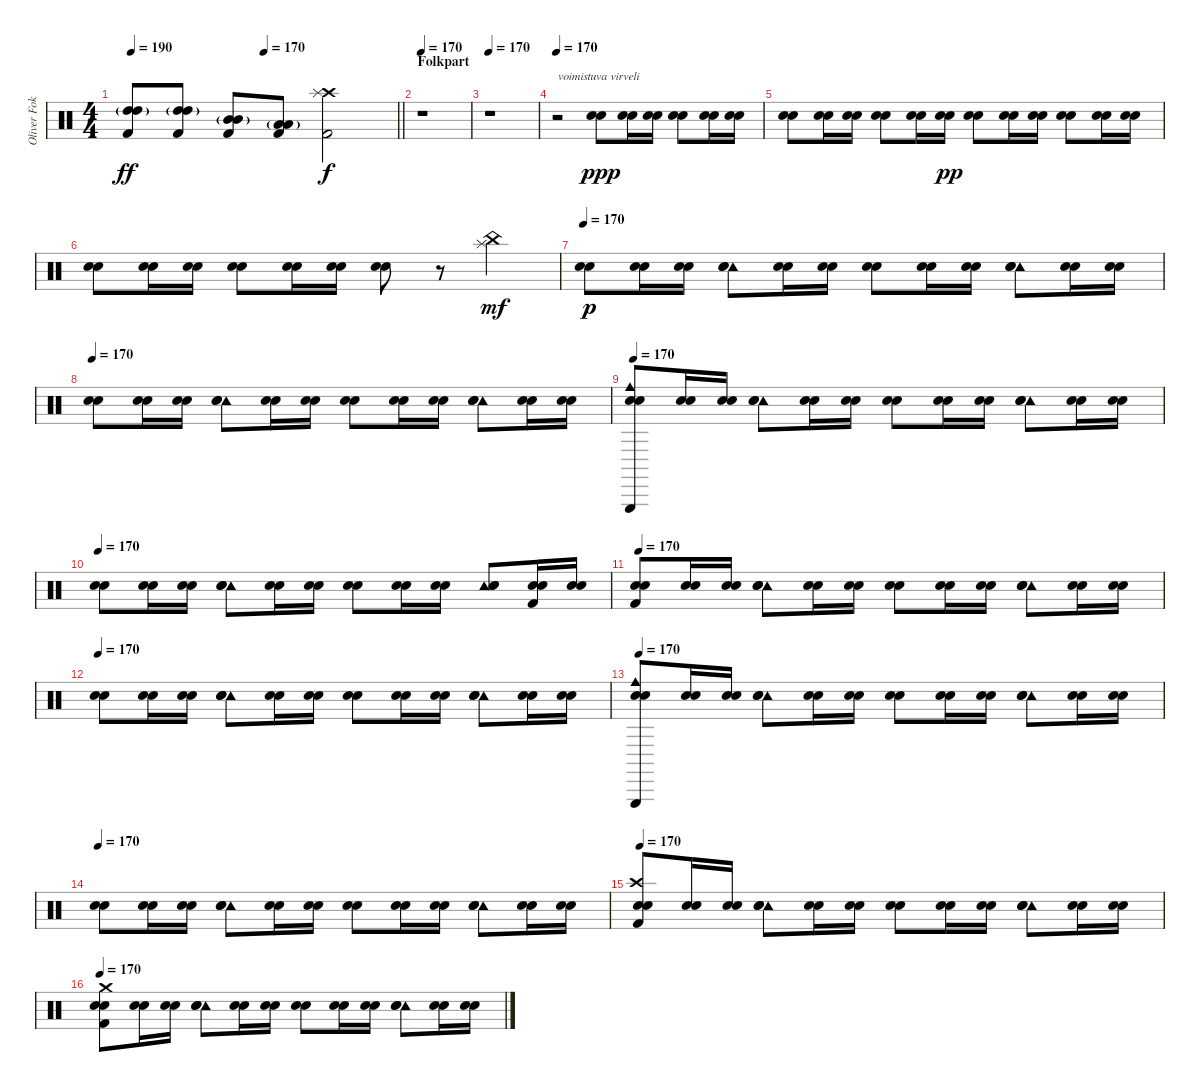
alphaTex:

\track ("Oliver Fokin" "Oliver Fok") {instrument percussion}
\staff {score}
\articulation defaults
\ts (4 4)
\tempo 190
\tempo (170 0.5)
\clef neutral
\barLineRight lightlight
\ks c
("High Tom (hit)"{g} "High Tom (hit)" "Kick (hit) 2").8{dy ff} ("High Tom (hit)"{g} "High Tom (hit)" "Kick (hit) 2").8 ("Mid Tom (hit)"{g} "Mid Tom (hit)" "Kick (hit) 2").8 ("Low Tom (hit)"{g} "Low Tom (hit)" "Kick (hit) 2").8 ("Crash high (hit)" "Splash (hit)" "Kick (hit) 2").2{dy f} |
\section ("" "Folkpart")
\tempo 170
r.1 |
\tempo 170
r.1 |
\tempo 170
r.2{txt "voimistuva virveli"} ("Electric Snare (hit)" "Electric Snare (hit)").8{dy ppp} ("Electric Snare (hit)" "Electric Snare (hit)").16 ("Electric Snare (hit)" "Electric Snare (hit)").16 ("Electric Snare (hit)" "Electric Snare (hit)").8 ("Electric Snare (hit)" "Electric Snare (hit)").16 ("Electric Snare (hit)" "Electric Snare (hit)").16 |
("Electric Snare (hit)" "Electric Snare (hit)").8 ("Electric Snare (hit)" "Electric Snare (hit)").16 ("Electric Snare (hit)" "Electric Snare (hit)").16 ("Electric Snare (hit)" "Electric Snare (hit)").8 ("Electric Snare (hit)" "Electric Snare (hit)").16 ("Electric Snare (hit)" "Electric Snare (hit)").16{dy pp} ("Electric Snare (hit)" "Electric Snare (hit)").8 ("Electric Snare (hit)" "Electric Snare (hit)").16 ("Electric Snare (hit)" "Electric Snare (hit)").16 ("Electric Snare (hit)" "Electric Snare (hit)").8 ("Electric Snare (hit)" "Electric Snare (hit)").16 ("Electric Snare (hit)" "Electric Snare (hit)").16 |
("Electric Snare (hit)" "Electric Snare (hit)").8 ("Electric Snare (hit)" "Electric Snare (hit)").16 ("Electric Snare (hit)" "Electric Snare (hit)").16 ("Electric Snare (hit)" "Electric Snare (hit)").8 ("Electric Snare (hit)" "Electric Snare (hit)").16 ("Electric Snare (hit)" "Electric Snare (hit)").16 ("Electric Snare (hit)" "Electric Snare (hit)").8 r.8 ("China (hit)" "Splash (hit)").4{dy mf} |
\tempo 170
("Electric Snare (hit)" "Electric Snare (hit)").8{dy p} ("Electric Snare (hit)" "Electric Snare (hit)").16 ("Electric Snare (hit)" "Electric Snare (hit)").16 ("Tambourine (hit)" "Electric Snare (hit)" "Electric Snare (hit)").8 ("Electric Snare (hit)" "Electric Snare (hit)").16 ("Electric Snare (hit)" "Electric Snare (hit)").16 ("Electric Snare (hit)" "Electric Snare (hit)").8 ("Electric Snare (hit)" "Electric Snare (hit)").16 ("Electric Snare (hit)" "Electric Snare (hit)").16 ("Tambourine (hit)" "Electric Snare (hit)" "Electric Snare (hit)").8 ("Electric Snare (hit)" "Electric Snare (hit)").16 ("Electric Snare (hit)" "Electric Snare (hit)").16 |
\tempo 170
("Electric Snare (hit)" "Electric Snare (hit)").8 ("Electric Snare (hit)" "Electric Snare (hit)").16 ("Electric Snare (hit)" "Electric Snare (hit)").16 ("Tambourine (hit)" "Electric Snare (hit)" "Electric Snare (hit)").8 ("Electric Snare (hit)" "Electric Snare (hit)").16 ("Electric Snare (hit)" "Electric Snare (hit)").16 ("Electric Snare (hit)" "Electric Snare (hit)").8 ("Electric Snare (hit)" "Electric Snare (hit)").16 ("Electric Snare (hit)" "Electric Snare (hit)").16 ("Tambourine (hit)" "Electric Snare (hit)" "Electric Snare (hit)").8 ("Electric Snare (hit)" "Electric Snare (hit)").16 ("Electric Snare (hit)" "Electric Snare (hit)").16 |
\tempo 170
("Cowbell medium (hit)" "Triangle (hit)" "Electric Snare (hit)" "Electric Snare (hit)").8 ("Electric Snare (hit)" "Electric Snare (hit)").16 ("Electric Snare (hit)" "Electric Snare (hit)").16 ("Tambourine (hit)" "Electric Snare (hit)" "Electric Snare (hit)").8 ("Electric Snare (hit)" "Electric Snare (hit)").16 ("Electric Snare (hit)" "Electric Snare (hit)").16 ("Electric Snare (hit)" "Electric Snare (hit)").8 ("Electric Snare (hit)" "Electric Snare (hit)").16 ("Electric Snare (hit)" "Electric Snare (hit)").16 ("Tambourine (hit)" "Electric Snare (hit)" "Electric Snare (hit)").8 ("Electric Snare (hit)" "Electric Snare (hit)").16 ("Electric Snare (hit)" "Electric Snare (hit)").16 |
\tempo 170
("Electric Snare (hit)" "Electric Snare (hit)").8 ("Electric Snare (hit)" "Electric Snare (hit)").16 ("Electric Snare (hit)" "Electric Snare (hit)").16 ("Tambourine (hit)" "Electric Snare (hit)" "Electric Snare (hit)").8 ("Electric Snare (hit)" "Electric Snare (hit)").16 ("Electric Snare (hit)" "Electric Snare (hit)").16 ("Electric Snare (hit)" "Electric Snare (hit)").8 ("Electric Snare (hit)" "Electric Snare (hit)").16 ("Electric Snare (hit)" "Electric Snare (hit)").16 ("Tambourine (hit)" "Electric Snare (hit)" "Electric Snare (hit)").8 ("Kick (hit) 2" "Electric Snare (hit)" "Electric Snare (hit)").16 ("Electric Snare (hit)" "Electric Snare (hit)").16 |
\tempo 170
("Kick (hit) 2" "Electric Snare (hit)" "Electric Snare (hit)").8 ("Electric Snare (hit)" "Electric Snare (hit)").16 ("Electric Snare (hit)" "Electric Snare (hit)").16 ("Tambourine (hit)" "Electric Snare (hit)" "Electric Snare (hit)").8 ("Electric Snare (hit)" "Electric Snare (hit)").16 ("Electric Snare (hit)" "Electric Snare (hit)").16 ("Electric Snare (hit)" "Electric Snare (hit)").8 ("Electric Snare (hit)" "Electric Snare (hit)").16 ("Electric Snare (hit)" "Electric Snare (hit)").16 ("Tambourine (hit)" "Electric Snare (hit)" "Electric Snare (hit)").8 ("Electric Snare (hit)" "Electric Snare (hit)").16 ("Electric Snare (hit)" "Electric Snare (hit)").16 |
\tempo 170
("Electric Snare (hit)" "Electric Snare (hit)").8 ("Electric Snare (hit)" "Electric Snare (hit)").16 ("Electric Snare (hit)" "Electric Snare (hit)").16 ("Tambourine (hit)" "Electric Snare (hit)" "Electric Snare (hit)").8 ("Electric Snare (hit)" "Electric Snare (hit)").16 ("Electric Snare (hit)" "Electric Snare (hit)").16 ("Electric Snare (hit)" "Electric Snare (hit)").8 ("Electric Snare (hit)" "Electric Snare (hit)").16 ("Electric Snare (hit)" "Electric Snare (hit)").16 ("Tambourine (hit)" "Electric Snare (hit)" "Electric Snare (hit)").8 ("Electric Snare (hit)" "Electric Snare (hit)").16 ("Electric Snare (hit)" "Electric Snare (hit)").16 |
\tempo 170
("Triangle (hit)" "Cowbell medium (hit)" "Electric Snare (hit)" "Electric Snare (hit)").8 ("Electric Snare (hit)" "Electric Snare (hit)").16 ("Electric Snare (hit)" "Electric Snare (hit)").16 ("Tambourine (hit)" "Electric Snare (hit)" "Electric Snare (hit)").8 ("Electric Snare (hit)" "Electric Snare (hit)").16 ("Electric Snare (hit)" "Electric Snare (hit)").16 ("Electric Snare (hit)" "Electric Snare (hit)").8 ("Electric Snare (hit)" "Electric Snare (hit)").16 ("Electric Snare (hit)" "Electric Snare (hit)").16 ("Tambourine (hit)" "Electric Snare (hit)" "Electric Snare (hit)").8 ("Electric Snare (hit)" "Electric Snare (hit)").16 ("Electric Snare (hit)" "Electric Snare (hit)").16 |
\tempo 170
("Electric Snare (hit)" "Electric Snare (hit)").8 ("Electric Snare (hit)" "Electric Snare (hit)").16 ("Electric Snare (hit)" "Electric Snare (hit)").16 ("Tambourine (hit)" "Electric Snare (hit)" "Electric Snare (hit)").8 ("Electric Snare (hit)" "Electric Snare (hit)").16 ("Electric Snare (hit)" "Electric Snare (hit)").16 ("Electric Snare (hit)" "Electric Snare (hit)").8 ("Electric Snare (hit)" "Electric Snare (hit)").16 ("Electric Snare (hit)" "Electric Snare (hit)").16 ("Tambourine (hit)" "Electric Snare (hit)" "Electric Snare (hit)").8 ("Electric Snare (hit)" "Electric Snare (hit)").16 ("Electric Snare (hit)" "Electric Snare (hit)").16 |
\tempo 170
("Crash high (hit)" "Kick (hit) 2" "Electric Snare (hit)" "Electric Snare (hit)").8 ("Electric Snare (hit)" "Electric Snare (hit)").16 ("Electric Snare (hit)" "Electric Snare (hit)").16 ("Tambourine (hit)" "Electric Snare (hit)" "Electric Snare (hit)").8 ("Electric Snare (hit)" "Electric Snare (hit)").16 ("Electric Snare (hit)" "Electric Snare (hit)").16 ("Electric Snare (hit)" "Electric Snare (hit)").8 ("Electric Snare (hit)" "Electric Snare (hit)").16 ("Electric Snare (hit)" "Electric Snare (hit)").16 ("Tambourine (hit)" "Electric Snare (hit)" "Electric Snare (hit)").8 ("Electric Snare (hit)" "Electric Snare (hit)").16 ("Electric Snare (hit)" "Electric Snare (hit)").16 |
\tempo 170
("Crash medium (hit)" "Kick (hit) 2" "Electric Snare (hit)" "Electric Snare (hit)").8 ("Electric Snare (hit)" "Electric Snare (hit)").16 ("Electric Snare (hit)" "Electric Snare (hit)").16 ("Tambourine (hit)" "Electric Snare (hit)" "Electric Snare (hit)").8 ("Electric Snare (hit)" "Electric Snare (hit)").16 ("Electric Snare (hit)" "Electric Snare (hit)").16 ("Electric Snare (hit)" "Electric Snare (hit)").8 ("Electric Snare (hit)" "Electric Snare (hit)").16 ("Electric Snare (hit)" "Electric Snare (hit)").16 ("Tambourine (hit)" "Electric Snare (hit)" "Electric Snare (hit)").8 ("Electric Snare (hit)" "Electric Snare (hit)").16 ("Electric Snare (hit)" "Electric Snare (hit)").16
